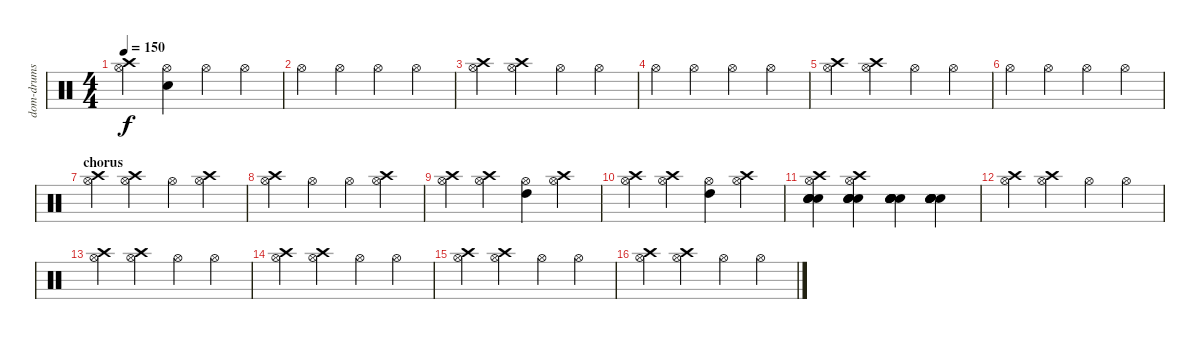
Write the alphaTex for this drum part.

\track ("dom-drums" "dom-drums") {instrument percussion}
\staff {score}
\articulation defaults
\ts (4 4)
\tempo 150
\clef neutral
\ks c
("Crash high (hit)" "Hi-Hat (open)").4{dy f} ("Snare (hit)" "Hi-Hat (open)").4 "Hi-Hat (open)".4 "Hi-Hat (open)".4 |
"Hi-Hat (open)".4 "Hi-Hat (open)".4 "Hi-Hat (open)".4 "Hi-Hat (open)".4 |
("Crash high (hit)" "Hi-Hat (open)").4 ("Crash high (hit)" "Hi-Hat (open)").4 "Hi-Hat (open)".4 "Hi-Hat (open)".4 |
"Hi-Hat (open)".4 "Hi-Hat (open)".4 "Hi-Hat (open)".4 "Hi-Hat (open)".4 |
("Crash high (hit)" "Hi-Hat (open)").4 ("Crash high (hit)" "Hi-Hat (open)").4 "Hi-Hat (open)".4 "Hi-Hat (open)".4 |
"Hi-Hat (open)".4 "Hi-Hat (open)".4 "Hi-Hat (open)".4 "Hi-Hat (open)".4 |
\section ("" "chorus")
("Crash high (hit)" "Hi-Hat (open)").4 ("Crash high (hit)" "Hi-Hat (open)").4 "Hi-Hat (open)".4 ("Crash high (hit)" "Hi-Hat (open)").4 |
("Crash high (hit)" "Hi-Hat (open)").4 "Hi-Hat (open)".4 "Hi-Hat (open)".4 ("Crash high (hit)" "Hi-Hat (open)").4 |
("Crash high (hit)" "Hi-Hat (open)").4 ("Crash high (hit)" "Hi-Hat (open)").4 ("High Tom (hit)" "Hi-Hat (open)").4 ("Crash high (hit)" "Hi-Hat (open)").4 |
("Crash high (hit)" "Hi-Hat (open)").4 ("Crash high (hit)" "Hi-Hat (open)").4 ("High Tom (hit)" "Hi-Hat (open)").4 ("Crash high (hit)" "Hi-Hat (open)").4 |
("Crash high (hit)"{x} "Snare (hit)"{x} "Hi-Hat (open)"{x} "Snare (hit)"{x} "Snare (hit)"{x} "Snare (hit)"{x}).4 ("Crash high (hit)"{x} "Snare (hit)"{x} "Hi-Hat (open)"{x} "Snare (hit)"{x} "Snare (hit)"{x} "Snare (hit)"{x}).4 ("Snare (hit)"{x} "Snare (hit)"{x} "Snare (hit)"{x} "Snare (hit)"{x} "Snare (hit)"{x} "Snare (hit)"{x}).4 ("Snare (hit)"{x} "Snare (hit)"{x} "Snare (hit)"{x} "Snare (hit)"{x} "Snare (hit)"{x} "Snare (hit)"{x}).4 |
("Crash high (hit)" "Hi-Hat (open)").4 ("Crash high (hit)" "Hi-Hat (open)").4 "Hi-Hat (open)".4 "Hi-Hat (open)".4 |
("Crash high (hit)" "Hi-Hat (open)").4 ("Crash high (hit)" "Hi-Hat (open)").4 "Hi-Hat (open)".4 "Hi-Hat (open)".4 |
("Crash high (hit)" "Hi-Hat (open)").4 ("Crash high (hit)" "Hi-Hat (open)").4 "Hi-Hat (open)".4 "Hi-Hat (open)".4 |
("Crash high (hit)" "Hi-Hat (open)").4 ("Crash high (hit)" "Hi-Hat (open)").4 "Hi-Hat (open)".4 "Hi-Hat (open)".4 |
("Crash high (hit)" "Hi-Hat (open)").4 ("Crash high (hit)" "Hi-Hat (open)").4 "Hi-Hat (open)".4 "Hi-Hat (open)".4
